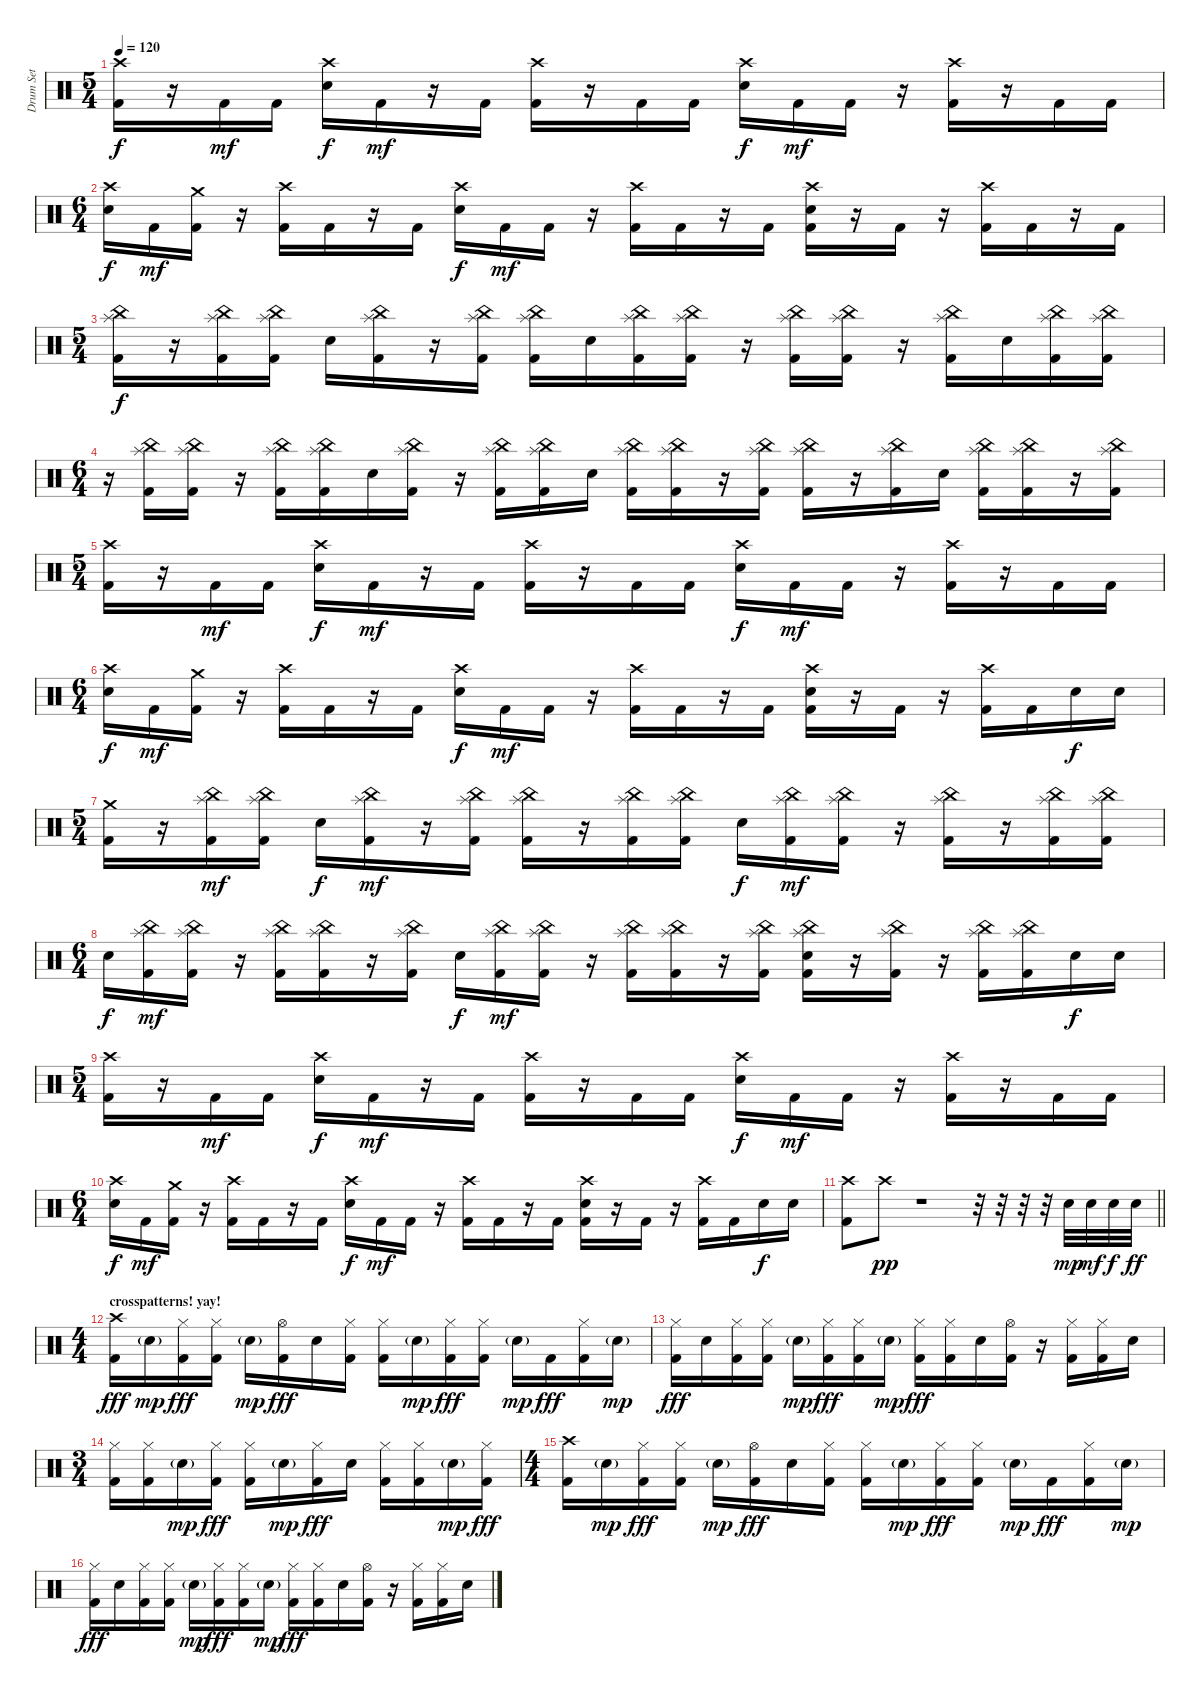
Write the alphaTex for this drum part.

\track ("Drum Set" "Drum Set") {instrument percussion}
\staff {score}
\articulation defaults
\ts (5 4)
\tempo 120
\clef neutral
\ks c
("Crash high (hit)" "Kick (hit) 2").16{dy f} r.16 "Kick (hit) 2".16{dy mf} "Kick (hit) 2".16 ("Crash high (hit)" "Electric Snare (hit)").16{dy f} "Kick (hit) 2".16{dy mf} r.16 "Kick (hit) 2".16 ("Crash high (hit)" "Kick (hit) 2").16 r.16 "Kick (hit) 2".16 "Kick (hit) 2".16 ("Crash high (hit)" "Electric Snare (hit)").16{dy f} "Kick (hit) 2".16{dy mf} "Kick (hit) 2".16 r.16 ("Crash high (hit)" "Kick (hit) 2").16 r.16 "Kick (hit) 2".16 "Kick (hit) 2".16 |
\ts (6 4)
("Crash high (hit)" "Electric Snare (hit)").16{dy f} "Kick (hit) 2".16{dy mf} ("Crash medium (hit)" "Kick (hit) 2").16 r.16 ("Crash high (hit)" "Kick (hit) 2").16 "Kick (hit) 2".16 r.16 "Kick (hit) 2".16 ("Crash high (hit)" "Electric Snare (hit)").16{dy f} "Kick (hit) 2".16{dy mf} "Kick (hit) 2".16 r.16 ("Crash high (hit)" "Kick (hit) 2").16 "Kick (hit) 2".16 r.16 "Kick (hit) 2".16 ("Crash high (hit)" "Electric Snare (hit)" "Kick (hit) 2").16 r.16 "Kick (hit) 2".16 r.16 ("Crash high (hit)" "Kick (hit) 2").16 "Kick (hit) 2".16 r.16 "Kick (hit) 2".16 |
\ts (5 4)
("China (hit)" "Splash (hit)" "Kick (hit) 2").16{dy f} r.16 ("China (hit)" "Splash (hit)" "Kick (hit) 2").16 ("China (hit)" "Splash (hit)" "Kick (hit) 2").16 "Electric Snare (hit)".16 ("China (hit)" "Splash (hit)" "Kick (hit) 2").16 r.16 ("China (hit)" "Splash (hit)" "Kick (hit) 2").16 ("China (hit)" "Splash (hit)" "Kick (hit) 2").16 "Electric Snare (hit)".16 ("China (hit)" "Splash (hit)" "Kick (hit) 2").16 ("China (hit)" "Splash (hit)" "Kick (hit) 2").16 r.16 ("China (hit)" "Splash (hit)" "Kick (hit) 2").16 ("China (hit)" "Splash (hit)" "Kick (hit) 2").16 r.16 ("China (hit)" "Splash (hit)" "Kick (hit) 2").16 "Electric Snare (hit)".16 ("China (hit)" "Splash (hit)" "Kick (hit) 2").16 ("China (hit)" "Splash (hit)" "Kick (hit) 2").16 |
\ts (6 4)
r.16 ("China (hit)" "Splash (hit)" "Kick (hit) 2").16 ("China (hit)" "Splash (hit)" "Kick (hit) 2").16 r.16 ("China (hit)" "Splash (hit)" "Kick (hit) 2").16 ("China (hit)" "Splash (hit)" "Kick (hit) 2").16 "Electric Snare (hit)".16 ("China (hit)" "Splash (hit)" "Kick (hit) 2").16 r.16 ("China (hit)" "Splash (hit)" "Kick (hit) 2").16 ("China (hit)" "Splash (hit)" "Kick (hit) 2").16 "Electric Snare (hit)".16 ("China (hit)" "Splash (hit)" "Kick (hit) 2").16 ("China (hit)" "Splash (hit)" "Kick (hit) 2").16 r.16 ("China (hit)" "Splash (hit)" "Kick (hit) 2").16 ("China (hit)" "Splash (hit)" "Kick (hit) 2").16 r.16 ("China (hit)" "Splash (hit)" "Kick (hit) 2").16 "Electric Snare (hit)".16 ("China (hit)" "Splash (hit)" "Kick (hit) 2").16 ("China (hit)" "Splash (hit)" "Kick (hit) 2").16 r.16 ("China (hit)" "Splash (hit)" "Kick (hit) 2").16 |
\ts (5 4)
("Crash high (hit)" "Kick (hit) 2").16 r.16 "Kick (hit) 2".16{dy mf} "Kick (hit) 2".16 ("Crash high (hit)" "Electric Snare (hit)").16{dy f} "Kick (hit) 2".16{dy mf} r.16 "Kick (hit) 2".16 ("Crash high (hit)" "Kick (hit) 2").16 r.16 "Kick (hit) 2".16 "Kick (hit) 2".16 ("Crash high (hit)" "Electric Snare (hit)").16{dy f} "Kick (hit) 2".16{dy mf} "Kick (hit) 2".16 r.16 ("Crash high (hit)" "Kick (hit) 2").16 r.16 "Kick (hit) 2".16 "Kick (hit) 2".16 |
\ts (6 4)
("Crash high (hit)" "Electric Snare (hit)").16{dy f} "Kick (hit) 2".16{dy mf} ("Crash medium (hit)" "Kick (hit) 2").16 r.16 ("Crash high (hit)" "Kick (hit) 2").16 "Kick (hit) 2".16 r.16 "Kick (hit) 2".16 ("Crash high (hit)" "Electric Snare (hit)").16{dy f} "Kick (hit) 2".16{dy mf} "Kick (hit) 2".16 r.16 ("Crash high (hit)" "Kick (hit) 2").16 "Kick (hit) 2".16 r.16 "Kick (hit) 2".16 ("Crash high (hit)" "Electric Snare (hit)" "Kick (hit) 2").16 r.16 "Kick (hit) 2".16 r.16 ("Crash high (hit)" "Kick (hit) 2").16 "Kick (hit) 2".16 "Electric Snare (hit)".16{dy f} "Electric Snare (hit)".16 |
\ts (5 4)
("Crash medium (hit)" "Kick (hit) 2").16 r.16 ("China (hit)" "Splash (hit)" "Kick (hit) 2").16{dy mf} ("China (hit)" "Splash (hit)" "Kick (hit) 2").16 "Electric Snare (hit)".16{dy f} ("China (hit)" "Splash (hit)" "Kick (hit) 2").16{dy mf} r.16 ("China (hit)" "Splash (hit)" "Kick (hit) 2").16 ("China (hit)" "Splash (hit)" "Kick (hit) 2").16 r.16 ("China (hit)" "Splash (hit)" "Kick (hit) 2").16 ("China (hit)" "Splash (hit)" "Kick (hit) 2").16 "Electric Snare (hit)".16{dy f} ("China (hit)" "Splash (hit)" "Kick (hit) 2").16{dy mf} ("China (hit)" "Splash (hit)" "Kick (hit) 2").16 r.16 ("China (hit)" "Splash (hit)" "Kick (hit) 2").16 r.16 ("China (hit)" "Splash (hit)" "Kick (hit) 2").16 ("China (hit)" "Splash (hit)" "Kick (hit) 2").16 |
\ts (6 4)
"Electric Snare (hit)".16{dy f} ("China (hit)" "Splash (hit)" "Kick (hit) 2").16{dy mf} ("China (hit)" "Splash (hit)" "Kick (hit) 2").16 r.16 ("China (hit)" "Splash (hit)" "Kick (hit) 2").16 ("China (hit)" "Splash (hit)" "Kick (hit) 2").16 r.16 ("China (hit)" "Splash (hit)" "Kick (hit) 2").16 "Electric Snare (hit)".16{dy f} ("China (hit)" "Splash (hit)" "Kick (hit) 2").16{dy mf} ("China (hit)" "Splash (hit)" "Kick (hit) 2").16 r.16 ("China (hit)" "Splash (hit)" "Kick (hit) 2").16 ("China (hit)" "Splash (hit)" "Kick (hit) 2").16 r.16 ("China (hit)" "Splash (hit)" "Kick (hit) 2").16 ("China (hit)" "Splash (hit)" "Electric Snare (hit)" "Kick (hit) 2").16 r.16 ("China (hit)" "Splash (hit)" "Kick (hit) 2").16 r.16 ("China (hit)" "Splash (hit)" "Kick (hit) 2").16 ("China (hit)" "Splash (hit)" "Kick (hit) 2").16 "Electric Snare (hit)".16{dy f} "Electric Snare (hit)".16 |
\ts (5 4)
("Crash high (hit)" "Kick (hit) 2").16 r.16 "Kick (hit) 2".16{dy mf} "Kick (hit) 2".16 ("Crash high (hit)" "Electric Snare (hit)").16{dy f} "Kick (hit) 2".16{dy mf} r.16 "Kick (hit) 2".16 ("Crash high (hit)" "Kick (hit) 2").16 r.16 "Kick (hit) 2".16 "Kick (hit) 2".16 ("Crash high (hit)" "Electric Snare (hit)").16{dy f} "Kick (hit) 2".16{dy mf} "Kick (hit) 2".16 r.16 ("Crash high (hit)" "Kick (hit) 2").16 r.16 "Kick (hit) 2".16 "Kick (hit) 2".16 |
\ts (6 4)
("Crash high (hit)" "Electric Snare (hit)").16{dy f} "Kick (hit) 2".16{dy mf} ("Crash medium (hit)" "Kick (hit) 2").16 r.16 ("Crash high (hit)" "Kick (hit) 2").16 "Kick (hit) 2".16 r.16 "Kick (hit) 2".16 ("Crash high (hit)" "Electric Snare (hit)").16{dy f} "Kick (hit) 2".16{dy mf} "Kick (hit) 2".16 r.16 ("Crash high (hit)" "Kick (hit) 2").16 "Kick (hit) 2".16 r.16 "Kick (hit) 2".16 ("Crash high (hit)" "Electric Snare (hit)" "Kick (hit) 2").16 r.16 "Kick (hit) 2".16 r.16 ("Crash high (hit)" "Kick (hit) 2").16 "Kick (hit) 2".16 "Electric Snare (hit)".16{dy f} "Electric Snare (hit)".16 |
\barLineRight lightlight
("Crash high (hit)" "Kick (hit) 2").8 "Crash high (hit)".8{dy pp} r.1 r.32 r.32 r.32 r.32 "Electric Snare (hit)".32{dy mp} "Electric Snare (hit)".32{dy mf} "Electric Snare (hit)".32{dy f} "Electric Snare (hit)".32{dy ff} |
\ts (4 4)
\section ("" "crosspatterns! yay!")
("Crash high (hit)" "Kick (hit) 2").16{dy fff} "Electric Snare (hit)"{g}.16{dy mp} ("Hi-Hat (closed)" "Kick (hit) 2").16{dy fff} ("Hi-Hat (closed)" "Kick (hit) 2").16 "Electric Snare (hit)"{g}.16{dy mp} ("Hi-Hat (open)" "Kick (hit) 2").16{dy fff} "Electric Snare (hit)".16 ("Hi-Hat (closed)" "Kick (hit) 2").16 ("Hi-Hat (closed)" "Kick (hit) 2").16 "Electric Snare (hit)"{g}.16{dy mp} ("Hi-Hat (closed)" "Kick (hit) 2").16{dy fff} ("Hi-Hat (closed)" "Kick (hit) 2").16 "Electric Snare (hit)"{g}.16{dy mp} "Kick (hit) 2".16{dy fff} ("Hi-Hat (closed)" "Kick (hit) 2").16 "Electric Snare (hit)"{g}.16{dy mp} |
("Hi-Hat (closed)" "Kick (hit) 2").16{dy fff} "Electric Snare (hit)".16 ("Hi-Hat (closed)" "Kick (hit) 2").16 ("Hi-Hat (closed)" "Kick (hit) 2").16 "Electric Snare (hit)"{g}.16{dy mp} ("Hi-Hat (closed)" "Kick (hit) 2").16{dy fff} ("Hi-Hat (closed)" "Kick (hit) 2").16 "Electric Snare (hit)"{g}.16{dy mp} ("Hi-Hat (closed)" "Kick (hit) 2").16{dy fff} ("Hi-Hat (closed)" "Kick (hit) 2").16 "Electric Snare (hit)".16 ("Hi-Hat (open)" "Kick (hit) 2").16 r.16 ("Hi-Hat (closed)" "Kick (hit) 2").16 ("Hi-Hat (closed)" "Kick (hit) 2").16 "Electric Snare (hit)".16 |
\ts (3 4)
("Hi-Hat (closed)" "Kick (hit) 2").16 ("Hi-Hat (closed)" "Kick (hit) 2").16 "Electric Snare (hit)"{g}.16{dy mp} ("Hi-Hat (closed)" "Kick (hit) 2").16{dy fff} ("Hi-Hat (closed)" "Kick (hit) 2").16 "Electric Snare (hit)"{g}.16{dy mp} ("Hi-Hat (closed)" "Kick (hit) 2").16{dy fff} "Electric Snare (hit)".16 ("Hi-Hat (closed)" "Kick (hit) 2").16 ("Hi-Hat (closed)" "Kick (hit) 2").16 "Electric Snare (hit)"{g}.16{dy mp} ("Hi-Hat (closed)" "Kick (hit) 2").16{dy fff} |
\ts (4 4)
("Crash high (hit)" "Kick (hit) 2").16 "Electric Snare (hit)"{g}.16{dy mp} ("Hi-Hat (closed)" "Kick (hit) 2").16{dy fff} ("Hi-Hat (closed)" "Kick (hit) 2").16 "Electric Snare (hit)"{g}.16{dy mp} ("Hi-Hat (open)" "Kick (hit) 2").16{dy fff} "Electric Snare (hit)".16 ("Hi-Hat (closed)" "Kick (hit) 2").16 ("Hi-Hat (closed)" "Kick (hit) 2").16 "Electric Snare (hit)"{g}.16{dy mp} ("Hi-Hat (closed)" "Kick (hit) 2").16{dy fff} ("Hi-Hat (closed)" "Kick (hit) 2").16 "Electric Snare (hit)"{g}.16{dy mp} "Kick (hit) 2".16{dy fff} ("Hi-Hat (closed)" "Kick (hit) 2").16 "Electric Snare (hit)"{g}.16{dy mp} |
("Hi-Hat (closed)" "Kick (hit) 2").16{dy fff} "Electric Snare (hit)".16 ("Hi-Hat (closed)" "Kick (hit) 2").16 ("Hi-Hat (closed)" "Kick (hit) 2").16 "Electric Snare (hit)"{g}.16{dy mp} ("Hi-Hat (closed)" "Kick (hit) 2").16{dy fff} ("Hi-Hat (closed)" "Kick (hit) 2").16 "Electric Snare (hit)"{g}.16{dy mp} ("Hi-Hat (closed)" "Kick (hit) 2").16{dy fff} ("Hi-Hat (closed)" "Kick (hit) 2").16 "Electric Snare (hit)".16 ("Hi-Hat (open)" "Kick (hit) 2").16 r.16 ("Hi-Hat (closed)" "Kick (hit) 2").16 ("Hi-Hat (closed)" "Kick (hit) 2").16 "Electric Snare (hit)".16
